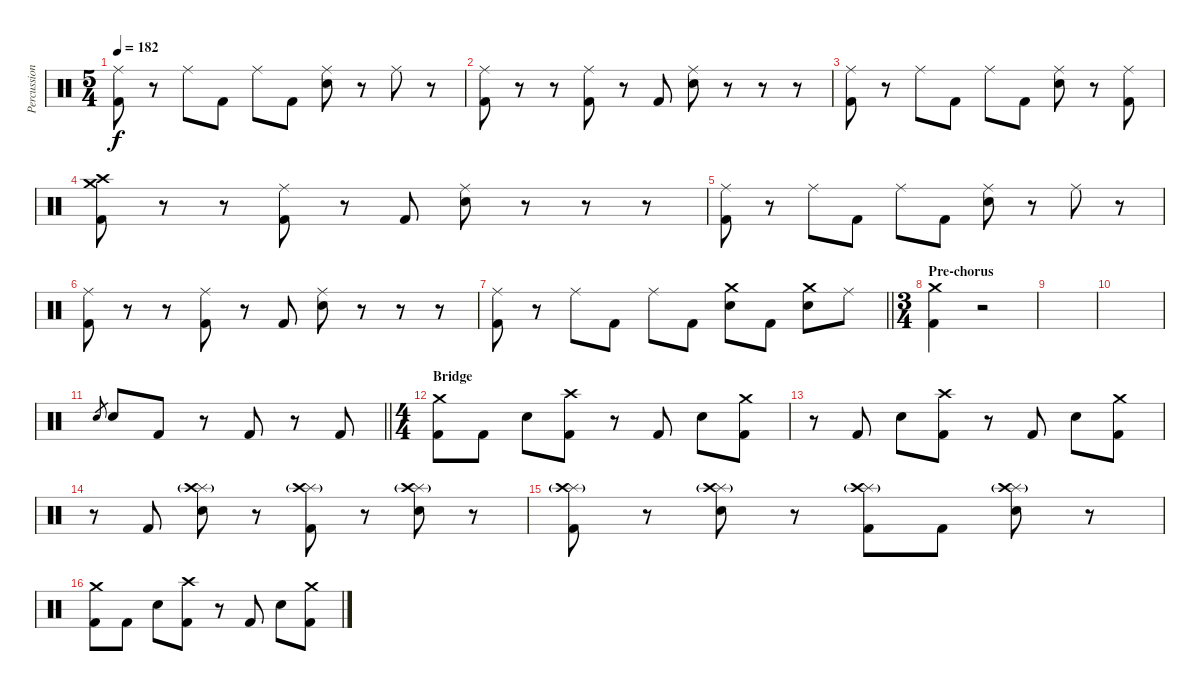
\track ("Percussion" "Percussion") {instrument percussion}
\staff {score}
\articulation defaults
\ts (5 4)
\tempo 182
\clef neutral
\ks c
("Ride (middle)" "Kick (hit) 2").8{dy f} r.8 "Ride (middle)".8 "Kick (hit) 2".8 "Ride (middle)".8 "Kick (hit) 2".8 ("Ride (middle)" "Electric Snare (hit)").8 r.8 "Ride (middle)".8 r.8 |
("Ride (middle)" "Kick (hit) 2").8 r.8 r.8 ("Ride (middle)" "Kick (hit) 2").8 r.8 "Kick (hit) 2".8 ("Ride (middle)" "Electric Snare (hit)").8 r.8 r.8 r.8 |
("Ride (middle)" "Kick (hit) 2").8 r.8 "Ride (middle)".8 "Kick (hit) 2".8 "Ride (middle)".8 "Kick (hit) 2".8 ("Ride (middle)" "Electric Snare (hit)").8 r.8 ("Ride (middle)" "Kick (hit) 2").8 |
("Crash high (hit)" "Crash medium (hit)" "Kick (hit) 2").8 r.8 r.8 ("Ride (middle)" "Kick (hit) 2").8 r.8 "Kick (hit) 2".8 ("Ride (middle)" "Electric Snare (hit)").8 r.8 r.8 r.8 |
("Ride (middle)" "Kick (hit) 2").8 r.8 "Ride (middle)".8 "Kick (hit) 2".8 "Ride (middle)".8 "Kick (hit) 2".8 ("Ride (middle)" "Electric Snare (hit)").8 r.8 "Ride (middle)".8 r.8 |
("Ride (middle)" "Kick (hit) 2").8 r.8 r.8 ("Ride (middle)" "Kick (hit) 2").8 r.8 "Kick (hit) 2".8 ("Ride (middle)" "Electric Snare (hit)").8 r.8 r.8 r.8 |
\barLineRight lightlight
("Ride (middle)" "Kick (hit) 2").8 r.8 "Ride (middle)".8 "Kick (hit) 2".8 "Ride (middle)".8 "Kick (hit) 2".8 ("Crash medium (hit)" "Electric Snare (hit)").8 "Kick (hit) 2".8 ("Crash medium (hit)" "Electric Snare (hit)").8 "Ride (middle)".8 |
\ts (3 4)
\section ("" "Pre-chorus")
("Crash medium (hit)" "Kick (hit) 2").4 r.2 |
|
|
\barLineRight lightlight "Electric Snare (hit)".8{gr} "Electric Snare (hit)".8 "Kick (hit) 2".8
r.8 "Kick (hit) 2".8 r.8 "Kick (hit) 2".8 |
\ts (4 4)
\section ("" "Bridge")
("Crash medium (hit)" "Kick (hit) 2").8 "Kick (hit) 2".8 "Electric Snare (hit)".8 ("Crash high (hit)" "Kick (hit) 2").8 r.8 "Kick (hit) 2".8 "Electric Snare (hit)".8 ("Crash medium (hit)" "Kick (hit) 2").8 |
r.8 "Kick (hit) 2".8 "Electric Snare (hit)".8 ("Crash high (hit)" "Kick (hit) 2").8 r.8 "Kick (hit) 2".8 "Electric Snare (hit)".8 ("Crash medium (hit)" "Kick (hit) 2").8 |
r.8 "Kick (hit) 2".8 ("Splash (hit)"{g} "Crash high (hit)" "Electric Snare (hit)").8 r.8 ("Splash (hit)"{g} "Crash high (hit)" "Kick (hit) 2").8 r.8 ("Splash (hit)"{g} "Crash high (hit)" "Electric Snare (hit)").8 r.8 |
("Splash (hit)"{g} "Crash high (hit)" "Kick (hit) 2").8 r.8 ("Splash (hit)"{g} "Crash high (hit)" "Electric Snare (hit)").8 r.8 ("Splash (hit)"{g} "Crash high (hit)" "Kick (hit) 2").8 "Kick (hit) 2".8 ("Splash (hit)"{g} "Crash high (hit)" "Electric Snare (hit)").8 r.8 |
("Crash medium (hit)" "Kick (hit) 2").8 "Kick (hit) 2".8 "Electric Snare (hit)".8 ("Crash high (hit)" "Kick (hit) 2").8 r.8 "Kick (hit) 2".8 "Electric Snare (hit)".8 ("Crash medium (hit)" "Kick (hit) 2").8
